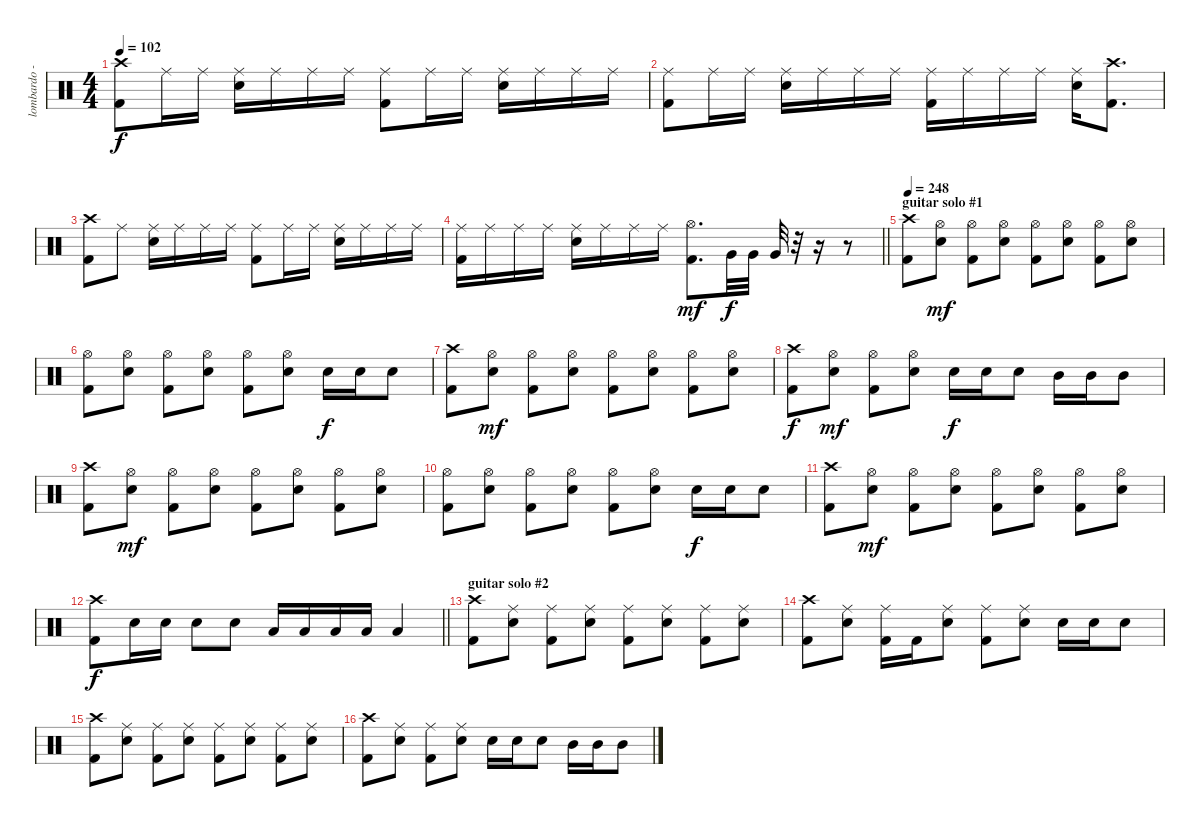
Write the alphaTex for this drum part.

\track ("lombardo - drums" "lombardo -") {instrument percussion}
\staff {score}
\articulation defaults
\ts (4 4)
\tempo 102
\clef neutral
\ks c
("Crash high (hit)" "Kick (hit) 2").8{dy f} "Ride (middle)".16 "Ride (middle)".16 ("Ride (middle)" "Snare (hit) 2").16 "Ride (middle)".16 "Ride (middle)".16 "Ride (middle)".16 ("Ride (middle)" "Kick (hit) 2").8 "Ride (middle)".16 "Ride (middle)".16 ("Ride (middle)" "Snare (hit) 2").16 "Ride (middle)".16 "Ride (middle)".16 "Ride (middle)".16 |
("Ride (middle)" "Kick (hit) 2").8 "Ride (middle)".16 "Ride (middle)".16 ("Ride (middle)" "Snare (hit) 2").16 "Ride (middle)".16 "Ride (middle)".16 "Ride (middle)".16 ("Ride (middle)" "Kick (hit) 2").16 "Ride (middle)".16 "Ride (middle)".16 "Ride (middle)".16 ("Ride (middle)" "Snare (hit) 2").16 ("Crash high (hit)" "Kick (hit) 2").8{d} |
("Crash high (hit)" "Kick (hit) 2").8 "Ride (middle)".8 ("Ride (middle)" "Snare (hit) 2").16 "Ride (middle)".16 "Ride (middle)".16 "Ride (middle)".16 ("Ride (middle)" "Kick (hit) 2").8 "Ride (middle)".16 "Ride (middle)".16 ("Ride (middle)" "Snare (hit) 2").16 "Ride (middle)".16 "Ride (middle)".16 "Ride (middle)".16 |
\barLineRight lightlight
("Ride (middle)" "Kick (hit) 2").16 "Ride (middle)".16 "Ride (middle)".16 "Ride (middle)".16 ("Ride (middle)" "Snare (hit) 2").16 "Ride (middle)".16 "Ride (middle)".16 "Ride (middle)".16 ("Hi-Hat (open)" "Kick (hit) 2").8{d dy mf} "Very Low Tom (hit)".32{dy f} "Very Low Tom (hit)".32 "Very Low Tom (hit)".32 r.32 r.16 r.8 |
\section ("" "guitar solo #1")
\tempo 248
("Crash high (hit)" "Kick (hit) 2").8 ("Hi-Hat (open)" "Snare (hit) 2").8{dy mf} ("Hi-Hat (open)" "Kick (hit) 2").8 ("Hi-Hat (open)" "Snare (hit) 2").8 ("Hi-Hat (open)" "Kick (hit) 2").8 ("Hi-Hat (open)" "Snare (hit) 2").8 ("Hi-Hat (open)" "Kick (hit) 2").8 ("Hi-Hat (open)" "Snare (hit) 2").8 |
("Hi-Hat (open)" "Kick (hit) 2").8 ("Hi-Hat (open)" "Snare (hit) 2").8 ("Hi-Hat (open)" "Kick (hit) 2").8 ("Hi-Hat (open)" "Snare (hit) 2").8 ("Hi-Hat (open)" "Kick (hit) 2").8 ("Hi-Hat (open)" "Snare (hit) 2").8 "Snare (hit) 2".16{dy f} "Snare (hit) 2".16 "Snare (hit) 2".8 |
("Crash high (hit)" "Kick (hit) 2").8 ("Hi-Hat (open)" "Snare (hit) 2").8{dy mf} ("Hi-Hat (open)" "Kick (hit) 2").8 ("Hi-Hat (open)" "Snare (hit) 2").8 ("Hi-Hat (open)" "Kick (hit) 2").8 ("Hi-Hat (open)" "Snare (hit) 2").8 ("Hi-Hat (open)" "Kick (hit) 2").8 ("Hi-Hat (open)" "Snare (hit) 2").8 |
("Crash high (hit)" "Kick (hit) 2").8{dy f} ("Hi-Hat (open)" "Snare (hit) 2").8{dy mf} ("Hi-Hat (open)" "Kick (hit) 2").8 ("Hi-Hat (open)" "Snare (hit) 2").8 "Snare (hit) 2".16{dy f} "Snare (hit) 2".16 "Snare (hit) 2".8 "Mid Tom (hit)".16 "Mid Tom (hit)".16 "Mid Tom (hit)".8 |
("Crash high (hit)" "Kick (hit) 2").8 ("Hi-Hat (open)" "Snare (hit) 2").8{dy mf} ("Hi-Hat (open)" "Kick (hit) 2").8 ("Hi-Hat (open)" "Snare (hit) 2").8 ("Hi-Hat (open)" "Kick (hit) 2").8 ("Hi-Hat (open)" "Snare (hit) 2").8 ("Hi-Hat (open)" "Kick (hit) 2").8 ("Hi-Hat (open)" "Snare (hit) 2").8 |
("Hi-Hat (open)" "Kick (hit) 2").8 ("Hi-Hat (open)" "Snare (hit) 2").8 ("Hi-Hat (open)" "Kick (hit) 2").8 ("Hi-Hat (open)" "Snare (hit) 2").8 ("Hi-Hat (open)" "Kick (hit) 2").8 ("Hi-Hat (open)" "Snare (hit) 2").8 "Snare (hit) 2".16{dy f} "Snare (hit) 2".16 "Snare (hit) 2".8 |
("Crash high (hit)" "Kick (hit) 2").8 ("Hi-Hat (open)" "Snare (hit) 2").8{dy mf} ("Hi-Hat (open)" "Kick (hit) 2").8 ("Hi-Hat (open)" "Snare (hit) 2").8 ("Hi-Hat (open)" "Kick (hit) 2").8 ("Hi-Hat (open)" "Snare (hit) 2").8 ("Hi-Hat (open)" "Kick (hit) 2").8 ("Hi-Hat (open)" "Snare (hit) 2").8 |
\barLineRight lightlight
("Crash high (hit)" "Kick (hit) 2").8{dy f} "Snare (hit) 2".16 "Snare (hit) 2".16 "Snare (hit) 2".8 "Snare (hit) 2".8 "Low Tom (hit)".16 "Low Tom (hit)".16 "Low Tom (hit)".16 "Low Tom (hit)".16 "Low Tom (hit)".4 |
\section ("" "guitar solo #2")
("Crash high (hit)" "Kick (hit) 2").8 ("Ride (middle)" "Snare (hit) 2").8 ("Ride (middle)" "Kick (hit) 2").8 ("Ride (middle)" "Snare (hit) 2").8 ("Ride (middle)" "Kick (hit) 2").8 ("Ride (middle)" "Snare (hit) 2").8 ("Ride (middle)" "Kick (hit) 2").8 ("Ride (middle)" "Snare (hit) 2").8 |
("Crash high (hit)" "Kick (hit) 2").8 ("Ride (middle)" "Snare (hit) 2").8 ("Ride (middle)" "Kick (hit) 2").16 "Kick (hit) 2".16 ("Ride (middle)" "Snare (hit) 2").8 ("Ride (middle)" "Kick (hit) 2").8 ("Ride (middle)" "Snare (hit) 2").8 "Snare (hit) 2".16 "Snare (hit) 2".16 "Snare (hit) 2".8 |
("Crash high (hit)" "Kick (hit) 2").8 ("Ride (middle)" "Snare (hit) 2").8 ("Ride (middle)" "Kick (hit) 2").8 ("Ride (middle)" "Snare (hit) 2").8 ("Ride (middle)" "Kick (hit) 2").8 ("Ride (middle)" "Snare (hit) 2").8 ("Ride (middle)" "Kick (hit) 2").8 ("Ride (middle)" "Snare (hit) 2").8 |
("Crash high (hit)" "Kick (hit) 2").8 ("Ride (middle)" "Snare (hit) 2").8 ("Ride (middle)" "Kick (hit) 2").8 ("Ride (middle)" "Snare (hit) 2").8 "Snare (hit) 2".16 "Snare (hit) 2".16 "Snare (hit) 2".8 "Mid Tom (hit)".16 "Mid Tom (hit)".16 "Mid Tom (hit)".8
